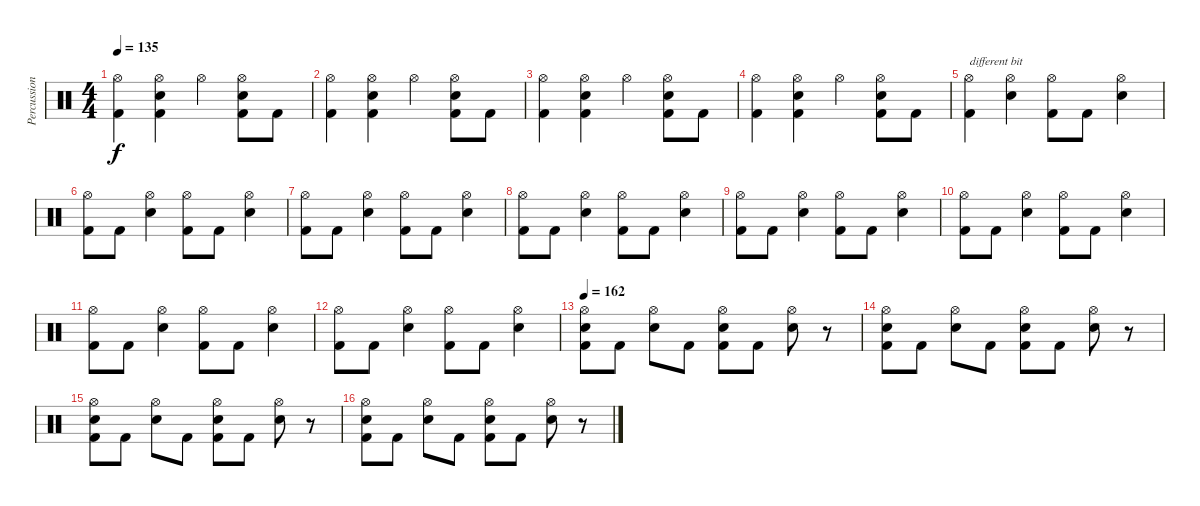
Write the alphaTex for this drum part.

\track ("Percussion" "Percussion") {instrument percussion}
\staff {score}
\articulation defaults
\ts (4 4)
\tempo 135
\clef neutral
\ks c
("Hi-Hat (open)" "Kick (hit) 2").4{dy f} ("Hi-Hat (open)" "Electric Snare (hit)" "Kick (hit) 2").4 "Hi-Hat (open)".4 ("Hi-Hat (open)" "Electric Snare (hit)" "Kick (hit) 2").8 "Kick (hit) 2".8 |
("Hi-Hat (open)" "Kick (hit) 2").4 ("Hi-Hat (open)" "Electric Snare (hit)" "Kick (hit) 2").4 "Hi-Hat (open)".4 ("Hi-Hat (open)" "Electric Snare (hit)" "Kick (hit) 2").8 "Kick (hit) 2".8 |
("Hi-Hat (open)" "Kick (hit) 2").4 ("Hi-Hat (open)" "Electric Snare (hit)" "Kick (hit) 2").4 "Hi-Hat (open)".4 ("Hi-Hat (open)" "Electric Snare (hit)" "Kick (hit) 2").8 "Kick (hit) 2".8 |
("Hi-Hat (open)" "Kick (hit) 2").4 ("Hi-Hat (open)" "Electric Snare (hit)" "Kick (hit) 2").4 "Hi-Hat (open)".4 ("Hi-Hat (open)" "Electric Snare (hit)" "Kick (hit) 2").8 "Kick (hit) 2".8 |
("Hi-Hat (open)" "Kick (hit) 2").4{txt "different bit"} ("Hi-Hat (open)" "Electric Snare (hit)").4 ("Hi-Hat (open)" "Kick (hit) 2").8 "Kick (hit) 2".8 ("Hi-Hat (open)" "Electric Snare (hit)").4 |
("Hi-Hat (open)" "Kick (hit) 2").8 "Kick (hit) 2".8 ("Hi-Hat (open)" "Electric Snare (hit)").4 ("Hi-Hat (open)" "Kick (hit) 2").8 "Kick (hit) 2".8 ("Hi-Hat (open)" "Electric Snare (hit)").4 |
("Hi-Hat (open)" "Kick (hit) 2").8 "Kick (hit) 2".8 ("Hi-Hat (open)" "Electric Snare (hit)").4 ("Hi-Hat (open)" "Kick (hit) 2").8 "Kick (hit) 2".8 ("Hi-Hat (open)" "Electric Snare (hit)").4 |
("Hi-Hat (open)" "Kick (hit) 2").8 "Kick (hit) 2".8 ("Hi-Hat (open)" "Electric Snare (hit)").4 ("Hi-Hat (open)" "Kick (hit) 2").8 "Kick (hit) 2".8 ("Hi-Hat (open)" "Electric Snare (hit)").4 |
("Hi-Hat (open)" "Kick (hit) 2").8 "Kick (hit) 2".8 ("Hi-Hat (open)" "Electric Snare (hit)").4 ("Hi-Hat (open)" "Kick (hit) 2").8 "Kick (hit) 2".8 ("Hi-Hat (open)" "Electric Snare (hit)").4 |
("Hi-Hat (open)" "Kick (hit) 2").8 "Kick (hit) 2".8 ("Hi-Hat (open)" "Electric Snare (hit)").4 ("Hi-Hat (open)" "Kick (hit) 2").8 "Kick (hit) 2".8 ("Hi-Hat (open)" "Electric Snare (hit)").4 |
("Hi-Hat (open)" "Kick (hit) 2").8 "Kick (hit) 2".8 ("Hi-Hat (open)" "Electric Snare (hit)").4 ("Hi-Hat (open)" "Kick (hit) 2").8 "Kick (hit) 2".8 ("Hi-Hat (open)" "Electric Snare (hit)").4 |
("Hi-Hat (open)" "Kick (hit) 2").8 "Kick (hit) 2".8 ("Hi-Hat (open)" "Electric Snare (hit)").4 ("Hi-Hat (open)" "Kick (hit) 2").8 "Kick (hit) 2".8 ("Hi-Hat (open)" "Electric Snare (hit)").4 |
\tempo 162
("Kick (hit) 2" "Electric Snare (hit)" "Hi-Hat (open)").8 "Kick (hit) 2".8 ("Electric Snare (hit)" "Hi-Hat (open)").8 "Kick (hit) 2".8 ("Kick (hit) 2" "Electric Snare (hit)" "Hi-Hat (open)").8 "Kick (hit) 2".8 ("Electric Snare (hit)" "Hi-Hat (open)").8 r.8 |
("Kick (hit) 2" "Electric Snare (hit)" "Hi-Hat (open)").8 "Kick (hit) 2".8 ("Electric Snare (hit)" "Hi-Hat (open)").8 "Kick (hit) 2".8 ("Kick (hit) 2" "Electric Snare (hit)" "Hi-Hat (open)").8 "Kick (hit) 2".8 ("Electric Snare (hit)" "Hi-Hat (open)").8 r.8 |
("Kick (hit) 2" "Electric Snare (hit)" "Hi-Hat (open)").8 "Kick (hit) 2".8 ("Electric Snare (hit)" "Hi-Hat (open)").8 "Kick (hit) 2".8 ("Kick (hit) 2" "Electric Snare (hit)" "Hi-Hat (open)").8 "Kick (hit) 2".8 ("Electric Snare (hit)" "Hi-Hat (open)").8 r.8 |
("Kick (hit) 2" "Electric Snare (hit)" "Hi-Hat (open)").8 "Kick (hit) 2".8 ("Electric Snare (hit)" "Hi-Hat (open)").8 "Kick (hit) 2".8 ("Kick (hit) 2" "Electric Snare (hit)" "Hi-Hat (open)").8 "Kick (hit) 2".8 ("Electric Snare (hit)" "Hi-Hat (open)").8 r.8
